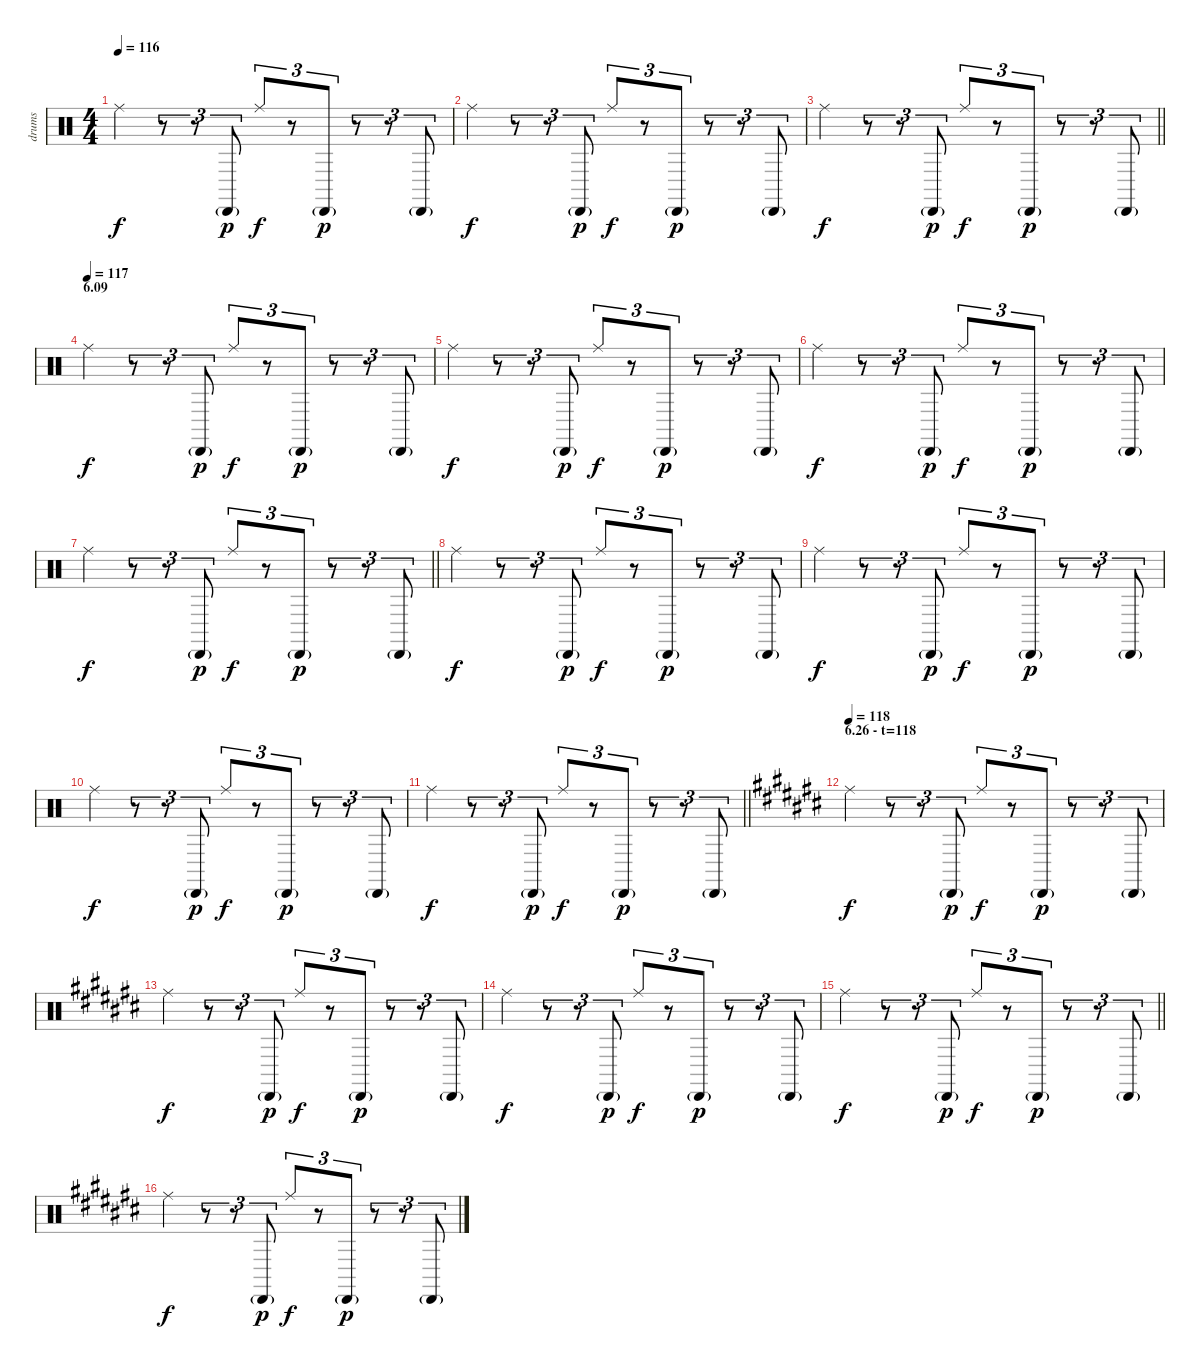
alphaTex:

\track ("drums" "drums") {instrument percussion}
\staff {score}
\articulation defaults
\ts (4 4)
\tempo 116
\clef neutral
\ks c "Ride (middle)".4{dy f}
r.8{tu (3 2)} r.8{tu (3 2)} "Cabasa (hit)"{g}.8{tu (3 2) dy p} "Ride (middle)".8{tu (3 2) dy f} r.8{tu (3 2)} "Cabasa (hit)"{g}.8{tu (3 2) dy p} r.8{tu (3 2)} r.8{tu (3 2)} "Cabasa (hit)"{g}.8{tu (3 2)} |
"Ride (middle)".4{dy f} r.8{tu (3 2)} r.8{tu (3 2)} "Cabasa (hit)"{g}.8{tu (3 2) dy p} "Ride (middle)".8{tu (3 2) dy f} r.8{tu (3 2)} "Cabasa (hit)"{g}.8{tu (3 2) dy p} r.8{tu (3 2)} r.8{tu (3 2)} "Cabasa (hit)"{g}.8{tu (3 2)} |
\barLineRight lightlight "Ride (middle)".4{dy f}
r.8{tu (3 2)} r.8{tu (3 2)} "Cabasa (hit)"{g}.8{tu (3 2) dy p} "Ride (middle)".8{tu (3 2) dy f} r.8{tu (3 2)} "Cabasa (hit)"{g}.8{tu (3 2) dy p} r.8{tu (3 2)} r.8{tu (3 2)} "Cabasa (hit)"{g}.8{tu (3 2)} |
\section ("" "6.09")
\tempo (117)
"Ride (middle)".4{dy f} r.8{tu (3 2)} r.8{tu (3 2)} "Cabasa (hit)"{g}.8{tu (3 2) dy p} "Ride (middle)".8{tu (3 2) dy f} r.8{tu (3 2)} "Cabasa (hit)"{g}.8{tu (3 2) dy p} r.8{tu (3 2)} r.8{tu (3 2)} "Cabasa (hit)"{g}.8{tu (3 2)} |
"Ride (middle)".4{dy f} r.8{tu (3 2)} r.8{tu (3 2)} "Cabasa (hit)"{g}.8{tu (3 2) dy p} "Ride (middle)".8{tu (3 2) dy f} r.8{tu (3 2)} "Cabasa (hit)"{g}.8{tu (3 2) dy p} r.8{tu (3 2)} r.8{tu (3 2)} "Cabasa (hit)"{g}.8{tu (3 2)} |
"Ride (middle)".4{dy f} r.8{tu (3 2)} r.8{tu (3 2)} "Cabasa (hit)"{g}.8{tu (3 2) dy p} "Ride (middle)".8{tu (3 2) dy f} r.8{tu (3 2)} "Cabasa (hit)"{g}.8{tu (3 2) dy p} r.8{tu (3 2)} r.8{tu (3 2)} "Cabasa (hit)"{g}.8{tu (3 2)} |
\barLineRight lightlight "Ride (middle)".4{dy f}
r.8{tu (3 2)} r.8{tu (3 2)} "Cabasa (hit)"{g}.8{tu (3 2) dy p} "Ride (middle)".8{tu (3 2) dy f} r.8{tu (3 2)} "Cabasa (hit)"{g}.8{tu (3 2) dy p} r.8{tu (3 2)} r.8{tu (3 2)} "Cabasa (hit)"{g}.8{tu (3 2)} |
"Ride (middle)".4{dy f} r.8{tu (3 2)} r.8{tu (3 2)} "Cabasa (hit)"{g}.8{tu (3 2) dy p} "Ride (middle)".8{tu (3 2) dy f} r.8{tu (3 2)} "Cabasa (hit)"{g}.8{tu (3 2) dy p} r.8{tu (3 2)} r.8{tu (3 2)} "Cabasa (hit)"{g}.8{tu (3 2)} |
"Ride (middle)".4{dy f} r.8{tu (3 2)} r.8{tu (3 2)} "Cabasa (hit)"{g}.8{tu (3 2) dy p} "Ride (middle)".8{tu (3 2) dy f} r.8{tu (3 2)} "Cabasa (hit)"{g}.8{tu (3 2) dy p} r.8{tu (3 2)} r.8{tu (3 2)} "Cabasa (hit)"{g}.8{tu (3 2)} |
"Ride (middle)".4{dy f} r.8{tu (3 2)} r.8{tu (3 2)} "Cabasa (hit)"{g}.8{tu (3 2) dy p} "Ride (middle)".8{tu (3 2) dy f} r.8{tu (3 2)} "Cabasa (hit)"{g}.8{tu (3 2) dy p} r.8{tu (3 2)} r.8{tu (3 2)} "Cabasa (hit)"{g}.8{tu (3 2)} |
\barLineRight lightlight "Ride (middle)".4{dy f}
r.8{tu (3 2)} r.8{tu (3 2)} "Cabasa (hit)"{g}.8{tu (3 2) dy p} "Ride (middle)".8{tu (3 2) dy f} r.8{tu (3 2)} "Cabasa (hit)"{g}.8{tu (3 2) dy p} r.8{tu (3 2)} r.8{tu (3 2)} "Cabasa (hit)"{g}.8{tu (3 2)} |
\section ("" "6.26 - t=118")
\tempo 118
\ks c# "Ride (middle)".4{dy f}
r.8{tu (3 2)} r.8{tu (3 2)} "Cabasa (hit)"{g}.8{tu (3 2) dy p} "Ride (middle)".8{tu (3 2) dy f} r.8{tu (3 2)} "Cabasa (hit)"{g}.8{tu (3 2) dy p} r.8{tu (3 2)} r.8{tu (3 2)} "Cabasa (hit)"{g}.8{tu (3 2)} |
"Ride (middle)".4{dy f} r.8{tu (3 2)} r.8{tu (3 2)} "Cabasa (hit)"{g}.8{tu (3 2) dy p} "Ride (middle)".8{tu (3 2) dy f} r.8{tu (3 2)} "Cabasa (hit)"{g}.8{tu (3 2) dy p} r.8{tu (3 2)} r.8{tu (3 2)} "Cabasa (hit)"{g}.8{tu (3 2)} |
"Ride (middle)".4{dy f} r.8{tu (3 2)} r.8{tu (3 2)} "Cabasa (hit)"{g}.8{tu (3 2) dy p} "Ride (middle)".8{tu (3 2) dy f} r.8{tu (3 2)} "Cabasa (hit)"{g}.8{tu (3 2) dy p} r.8{tu (3 2)} r.8{tu (3 2)} "Cabasa (hit)"{g}.8{tu (3 2)} |
\barLineRight lightlight "Ride (middle)".4{dy f}
r.8{tu (3 2)} r.8{tu (3 2)} "Cabasa (hit)"{g}.8{tu (3 2) dy p} "Ride (middle)".8{tu (3 2) dy f} r.8{tu (3 2)} "Cabasa (hit)"{g}.8{tu (3 2) dy p} r.8{tu (3 2)} r.8{tu (3 2)} "Cabasa (hit)"{g}.8{tu (3 2)} |
"Ride (middle)".4{dy f} r.8{tu (3 2)} r.8{tu (3 2)} "Cabasa (hit)"{g}.8{tu (3 2) dy p} "Ride (middle)".8{tu (3 2) dy f} r.8{tu (3 2)} "Cabasa (hit)"{g}.8{tu (3 2) dy p} r.8{tu (3 2)} r.8{tu (3 2)} "Cabasa (hit)"{g}.8{tu (3 2)}
